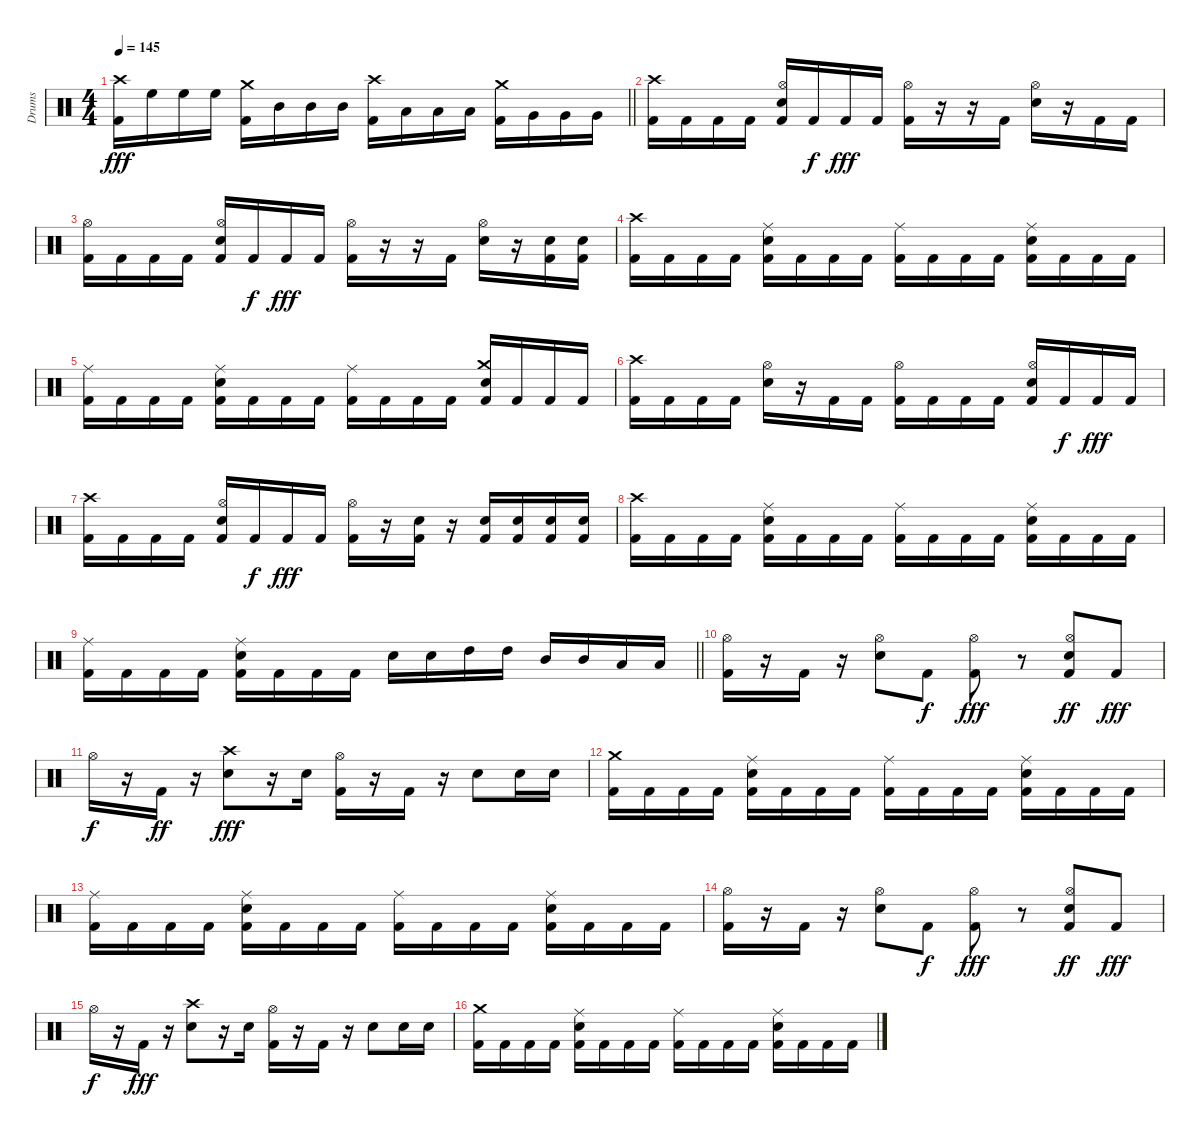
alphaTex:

\track ("Drums" "Drums") {instrument percussion}
\staff {score}
\articulation defaults
\ts (4 4)
\tempo 145
\clef neutral
\barLineRight lightlight
\ks c
("Crash high (hit)" "Kick (hit) 2").16{dy fff} "High Floor Tom (hit)".16 "High Floor Tom (hit)".16 "High Floor Tom (hit)".16 ("Crash medium (hit)" "Kick (hit) 2").16 "Mid Tom (hit)".16 "Mid Tom (hit)".16 "Mid Tom (hit)".16 ("Crash high (hit)" "Kick (hit) 2").16 "Low Tom (hit)".16 "Low Tom (hit)".16 "Low Tom (hit)".16 ("Crash medium (hit)" "Kick (hit) 2").16 "Very Low Tom (hit)".16 "Very Low Tom (hit)".16 "Very Low Tom (hit)".16 |
("Crash high (hit)" "Kick (hit) 2").16 "Kick (hit) 2".16 "Kick (hit) 2".16 "Kick (hit) 2".16 ("Hi-Hat (open)" "Snare (hit) 2" "Kick (hit) 2").16 "Kick (hit) 2".16{dy f} "Kick (hit) 2".16{dy fff} "Kick (hit) 2".16 ("Hi-Hat (open)" "Kick (hit) 2").16 r.16 r.16 "Kick (hit) 2".16 ("Hi-Hat (open)" "Snare (hit) 2").16 r.16 "Kick (hit) 2".16 "Kick (hit) 2".16 |
("Hi-Hat (open)" "Kick (hit) 2").16 "Kick (hit) 2".16 "Kick (hit) 2".16 "Kick (hit) 2".16 ("Hi-Hat (open)" "Snare (hit) 2" "Kick (hit) 2").16 "Kick (hit) 2".16{dy f} "Kick (hit) 2".16{dy fff} "Kick (hit) 2".16 ("Hi-Hat (open)" "Kick (hit) 2").16 r.16 r.16 "Kick (hit) 2".16 ("Hi-Hat (open)" "Snare (hit) 2").16 r.16 ("Snare (hit) 2" "Kick (hit) 2").16 ("Snare (hit) 2" "Kick (hit) 2").16 |
("Crash high (hit)" "Kick (hit) 2").16 "Kick (hit) 2".16 "Kick (hit) 2".16 "Kick (hit) 2".16 ("Ride (middle)" "Snare (hit) 2" "Kick (hit) 2").16 "Kick (hit) 2".16 "Kick (hit) 2".16 "Kick (hit) 2".16 ("Ride (middle)" "Kick (hit) 2").16 "Kick (hit) 2".16 "Kick (hit) 2".16 "Kick (hit) 2".16 ("Ride (middle)" "Snare (hit) 2" "Kick (hit) 2").16 "Kick (hit) 2".16 "Kick (hit) 2".16 "Kick (hit) 2".16 |
("Ride (middle)" "Kick (hit) 2").16 "Kick (hit) 2".16 "Kick (hit) 2".16 "Kick (hit) 2".16 ("Ride (middle)" "Snare (hit) 2" "Kick (hit) 2").16 "Kick (hit) 2".16 "Kick (hit) 2".16 "Kick (hit) 2".16 ("Ride (middle)" "Kick (hit) 2").16 "Kick (hit) 2".16 "Kick (hit) 2".16 "Kick (hit) 2".16 ("Crash medium (hit)" "Snare (hit) 2" "Kick (hit) 2").16 "Kick (hit) 2".16 "Kick (hit) 2".16 "Kick (hit) 2".16 |
("Crash high (hit)" "Kick (hit) 2").16 "Kick (hit) 2".16 "Kick (hit) 2".16 "Kick (hit) 2".16 ("Hi-Hat (open)" "Snare (hit) 2").16 r.16 "Kick (hit) 2".16 "Kick (hit) 2".16 ("Hi-Hat (open)" "Kick (hit) 2").16 "Kick (hit) 2".16 "Kick (hit) 2".16 "Kick (hit) 2".16 ("Hi-Hat (open)" "Snare (hit) 2" "Kick (hit) 2").16 "Kick (hit) 2".16{dy f} "Kick (hit) 2".16{dy fff} "Kick (hit) 2".16 |
("Crash high (hit)" "Kick (hit) 2").16 "Kick (hit) 2".16 "Kick (hit) 2".16 "Kick (hit) 2".16 ("Hi-Hat (open)" "Snare (hit) 2" "Kick (hit) 2").16 "Kick (hit) 2".16{dy f} "Kick (hit) 2".16{dy fff} "Kick (hit) 2".16 ("Hi-Hat (open)" "Kick (hit) 2").16 r.16 ("Snare (hit) 2" "Kick (hit) 2").16 r.16 ("Snare (hit) 2" "Kick (hit) 2").16 ("Snare (hit) 2" "Kick (hit) 2").16 ("Snare (hit) 2" "Kick (hit) 2").16 ("Snare (hit) 2" "Kick (hit) 2").16 |
("Crash high (hit)" "Kick (hit) 2").16 "Kick (hit) 2".16 "Kick (hit) 2".16 "Kick (hit) 2".16 ("Ride (middle)" "Snare (hit) 2" "Kick (hit) 2").16 "Kick (hit) 2".16 "Kick (hit) 2".16 "Kick (hit) 2".16 ("Ride (middle)" "Kick (hit) 2").16 "Kick (hit) 2".16 "Kick (hit) 2".16 "Kick (hit) 2".16 ("Ride (middle)" "Snare (hit) 2" "Kick (hit) 2").16 "Kick (hit) 2".16 "Kick (hit) 2".16 "Kick (hit) 2".16 |
\barLineRight lightlight
("Ride (middle)" "Kick (hit) 2").16 "Kick (hit) 2".16 "Kick (hit) 2".16 "Kick (hit) 2".16 ("Ride (middle)" "Snare (hit) 2" "Kick (hit) 2").16 "Kick (hit) 2".16 "Kick (hit) 2".16 "Kick (hit) 2".16 "Snare (hit) 2".16 "Snare (hit) 2".16 "High Tom (hit)".16 "High Tom (hit)".16 "Mid Tom (hit)".16 "Mid Tom (hit)".16 "Low Tom (hit)".16 "Low Tom (hit)".16 |
("Hi-Hat (open)" "Kick (hit) 2").16 r.16 "Kick (hit) 2".16 r.16 ("Hi-Hat (open)" "Snare (hit) 2").8 "Kick (hit) 2".8{dy f} ("Hi-Hat (open)" "Kick (hit) 2").8{dy fff} r.8 ("Hi-Hat (open)" "Snare (hit) 2" "Kick (hit) 2").8{dy ff} "Kick (hit) 2".8{dy fff} |
"Hi-Hat (open)".16{dy f} r.16 "Kick (hit) 2".16{dy ff} r.16 ("Crash high (hit)" "Snare (hit) 2").8{dy fff} r.16 "Snare (hit) 2".16 ("Hi-Hat (open)" "Kick (hit) 2").16 r.16 "Kick (hit) 2".16 r.16 "Snare (hit) 2".8 "Snare (hit) 2".16 "Snare (hit) 2".16 |
("Crash medium (hit)" "Kick (hit) 2").16 "Kick (hit) 2".16 "Kick (hit) 2".16 "Kick (hit) 2".16 ("Ride (middle)" "Snare (hit) 2" "Kick (hit) 2").16 "Kick (hit) 2".16 "Kick (hit) 2".16 "Kick (hit) 2".16 ("Ride (middle)" "Kick (hit) 2").16 "Kick (hit) 2".16 "Kick (hit) 2".16 "Kick (hit) 2".16 ("Ride (middle)" "Snare (hit) 2" "Kick (hit) 2").16 "Kick (hit) 2".16 "Kick (hit) 2".16 "Kick (hit) 2".16 |
("Ride (middle)" "Kick (hit) 2").16 "Kick (hit) 2".16 "Kick (hit) 2".16 "Kick (hit) 2".16 ("Ride (middle)" "Snare (hit) 2" "Kick (hit) 2").16 "Kick (hit) 2".16 "Kick (hit) 2".16 "Kick (hit) 2".16 ("Ride (middle)" "Kick (hit) 2").16 "Kick (hit) 2".16 "Kick (hit) 2".16 "Kick (hit) 2".16 ("Ride (middle)" "Snare (hit) 2" "Kick (hit) 2").16 "Kick (hit) 2".16 "Kick (hit) 2".16 "Kick (hit) 2".16 |
("Hi-Hat (open)" "Kick (hit) 2").16 r.16 "Kick (hit) 2".16 r.16 ("Hi-Hat (open)" "Snare (hit) 2").8 "Kick (hit) 2".8{dy f} ("Hi-Hat (open)" "Kick (hit) 2").8{dy fff} r.8 ("Hi-Hat (open)" "Snare (hit) 2" "Kick (hit) 2").8{dy ff} "Kick (hit) 2".8{dy fff} |
"Hi-Hat (open)".16{dy f} r.16 "Kick (hit) 2".16{dy fff} r.16 ("Crash high (hit)" "Snare (hit) 2").8 r.16 "Snare (hit) 2".16 ("Hi-Hat (open)" "Kick (hit) 2").16 r.16 "Kick (hit) 2".16 r.16 "Snare (hit) 2".8 "Snare (hit) 2".16 "Snare (hit) 2".16 |
("Crash medium (hit)" "Kick (hit) 2").16 "Kick (hit) 2".16 "Kick (hit) 2".16 "Kick (hit) 2".16 ("Ride (middle)" "Snare (hit) 2" "Kick (hit) 2").16 "Kick (hit) 2".16 "Kick (hit) 2".16 "Kick (hit) 2".16 ("Ride (middle)" "Kick (hit) 2").16 "Kick (hit) 2".16 "Kick (hit) 2".16 "Kick (hit) 2".16 ("Ride (middle)" "Snare (hit) 2" "Kick (hit) 2").16 "Kick (hit) 2".16 "Kick (hit) 2".16 "Kick (hit) 2".16
